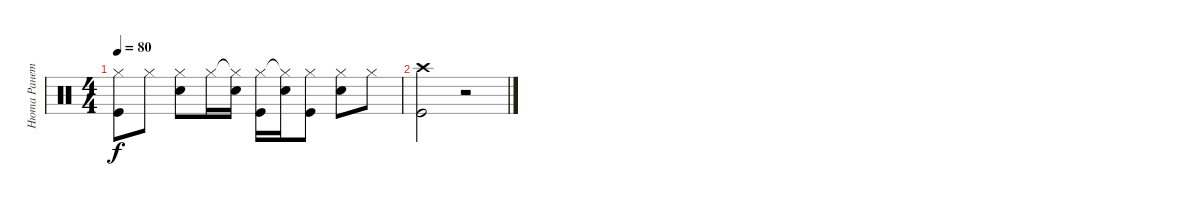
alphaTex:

\track ("Нюта Ранетка" "Нюта Ранет") {instrument percussion}
\staff {score}
\articulation defaults
\ts (4 4)
\tempo 80
\clef neutral
\ks c
("Hi-Hat (closed)" "Kick (hit)").8{dy f} "Hi-Hat (closed)".8 ("Hi-Hat (closed)" "Electric Snare (hit)").8 "Hi-Hat (closed)".16 ("Hi-Hat (closed)"{t} "Electric Snare (hit)").16 ("Hi-Hat (closed)" "Kick (hit)").16 ("Hi-Hat (closed)"{t} "Electric Snare (hit)").16 ("Hi-Hat (closed)" "Kick (hit)").8 ("Hi-Hat (closed)" "Electric Snare (hit)").8 "Hi-Hat (closed)".8 |
("Crash high (hit)" "Kick (hit)").2 r.2
